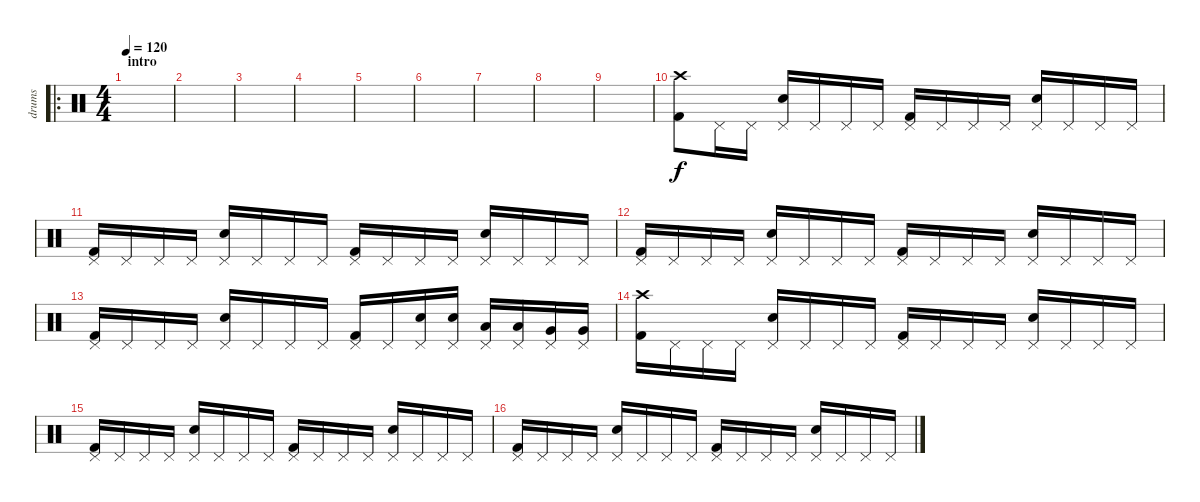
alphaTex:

\track ("drums" "drums") {instrument percussion}
\staff {score}
\articulation defaults
\ro
\ts (4 4)
\section ("" "intro")
\tempo 120
\clef neutral
\ks c
|
|
|
|
|
|
|
|
|
("Kick (hit) 2" "Crash high (hit)").8 "Pedal Hi-Hat (hit)".16 "Pedal Hi-Hat (hit)".16 ("Electric Snare (hit)" "Pedal Hi-Hat (hit)").16 "Pedal Hi-Hat (hit)".16 "Pedal Hi-Hat (hit)".16 "Pedal Hi-Hat (hit)".16 ("Kick (hit) 2" "Pedal Hi-Hat (hit)").16 "Pedal Hi-Hat (hit)".16 "Pedal Hi-Hat (hit)".16 "Pedal Hi-Hat (hit)".16 ("Electric Snare (hit)" "Pedal Hi-Hat (hit)").16 "Pedal Hi-Hat (hit)".16 "Pedal Hi-Hat (hit)".16 "Pedal Hi-Hat (hit)".16 |
("Kick (hit) 2" "Pedal Hi-Hat (hit)").16 "Pedal Hi-Hat (hit)".16 "Pedal Hi-Hat (hit)".16 "Pedal Hi-Hat (hit)".16 ("Electric Snare (hit)" "Pedal Hi-Hat (hit)").16 "Pedal Hi-Hat (hit)".16 "Pedal Hi-Hat (hit)".16 "Pedal Hi-Hat (hit)".16 ("Kick (hit) 2" "Pedal Hi-Hat (hit)").16 "Pedal Hi-Hat (hit)".16 "Pedal Hi-Hat (hit)".16 "Pedal Hi-Hat (hit)".16 ("Electric Snare (hit)" "Pedal Hi-Hat (hit)").16 "Pedal Hi-Hat (hit)".16 "Pedal Hi-Hat (hit)".16 "Pedal Hi-Hat (hit)".16 |
("Kick (hit) 2" "Pedal Hi-Hat (hit)").16 "Pedal Hi-Hat (hit)".16 "Pedal Hi-Hat (hit)".16 "Pedal Hi-Hat (hit)".16 ("Electric Snare (hit)" "Pedal Hi-Hat (hit)").16 "Pedal Hi-Hat (hit)".16 "Pedal Hi-Hat (hit)".16 "Pedal Hi-Hat (hit)".16 ("Kick (hit) 2" "Pedal Hi-Hat (hit)").16 "Pedal Hi-Hat (hit)".16 "Pedal Hi-Hat (hit)".16 "Pedal Hi-Hat (hit)".16 ("Electric Snare (hit)" "Pedal Hi-Hat (hit)").16 "Pedal Hi-Hat (hit)".16 "Pedal Hi-Hat (hit)".16 "Pedal Hi-Hat (hit)".16 |
("Kick (hit) 2" "Pedal Hi-Hat (hit)").16 "Pedal Hi-Hat (hit)".16 "Pedal Hi-Hat (hit)".16 "Pedal Hi-Hat (hit)".16 ("Electric Snare (hit)" "Pedal Hi-Hat (hit)").16 "Pedal Hi-Hat (hit)".16 "Pedal Hi-Hat (hit)".16 "Pedal Hi-Hat (hit)".16 ("Kick (hit) 2" "Pedal Hi-Hat (hit)").16 "Pedal Hi-Hat (hit)".16 ("Electric Snare (hit)" "Pedal Hi-Hat (hit)").16 ("Electric Snare (hit)" "Pedal Hi-Hat (hit)").16 ("Low Tom (hit)" "Pedal Hi-Hat (hit)").16 ("Low Tom (hit)" "Pedal Hi-Hat (hit)").16 ("Very Low Tom (hit)" "Pedal Hi-Hat (hit)").16 ("Very Low Tom (hit)" "Pedal Hi-Hat (hit)").16 |
("Kick (hit) 2" "Crash high (hit)").16 "Pedal Hi-Hat (hit)".16 "Pedal Hi-Hat (hit)".16 "Pedal Hi-Hat (hit)".16 ("Electric Snare (hit)" "Pedal Hi-Hat (hit)").16 "Pedal Hi-Hat (hit)".16 "Pedal Hi-Hat (hit)".16 "Pedal Hi-Hat (hit)".16 ("Kick (hit) 2" "Pedal Hi-Hat (hit)").16 "Pedal Hi-Hat (hit)".16 "Pedal Hi-Hat (hit)".16 "Pedal Hi-Hat (hit)".16 ("Electric Snare (hit)" "Pedal Hi-Hat (hit)").16 "Pedal Hi-Hat (hit)".16 "Pedal Hi-Hat (hit)".16 "Pedal Hi-Hat (hit)".16 |
("Kick (hit) 2" "Pedal Hi-Hat (hit)").16 "Pedal Hi-Hat (hit)".16 "Pedal Hi-Hat (hit)".16 "Pedal Hi-Hat (hit)".16 ("Electric Snare (hit)" "Pedal Hi-Hat (hit)").16 "Pedal Hi-Hat (hit)".16 "Pedal Hi-Hat (hit)".16 "Pedal Hi-Hat (hit)".16 ("Kick (hit) 2" "Pedal Hi-Hat (hit)").16 "Pedal Hi-Hat (hit)".16 "Pedal Hi-Hat (hit)".16 "Pedal Hi-Hat (hit)".16 ("Electric Snare (hit)" "Pedal Hi-Hat (hit)").16 "Pedal Hi-Hat (hit)".16 "Pedal Hi-Hat (hit)".16 "Pedal Hi-Hat (hit)".16 |
("Kick (hit) 2" "Pedal Hi-Hat (hit)").16 "Pedal Hi-Hat (hit)".16 "Pedal Hi-Hat (hit)".16 "Pedal Hi-Hat (hit)".16 ("Electric Snare (hit)" "Pedal Hi-Hat (hit)").16 "Pedal Hi-Hat (hit)".16 "Pedal Hi-Hat (hit)".16 "Pedal Hi-Hat (hit)".16 ("Kick (hit) 2" "Pedal Hi-Hat (hit)").16 "Pedal Hi-Hat (hit)".16 "Pedal Hi-Hat (hit)".16 "Pedal Hi-Hat (hit)".16 ("Electric Snare (hit)" "Pedal Hi-Hat (hit)").16 "Pedal Hi-Hat (hit)".16 "Pedal Hi-Hat (hit)".16 "Pedal Hi-Hat (hit)".16
